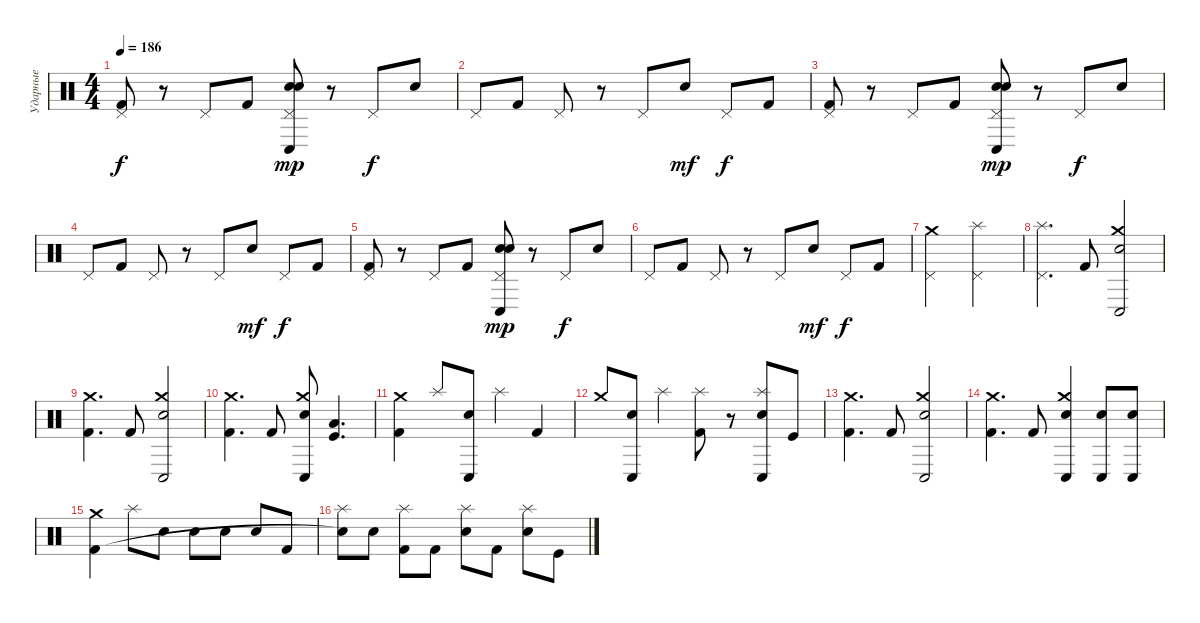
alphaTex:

\track ("Ударные" "Ударные") {instrument percussion}
\staff {score}
\articulation defaults
\ts (4 4)
\tempo 186
\clef neutral
\ks c
("Pedal Hi-Hat (hit)" "Kick (hit) 2").8{dy f} r.8 "Pedal Hi-Hat (hit)".8 "Kick (hit) 2".8 ("Pedal Hi-Hat (hit)" "Conga low (hit)" "Electric Snare (hit)" "Snare (hit) 2").8{dy mp} r.8 "Pedal Hi-Hat (hit)".8{dy f} "Electric Snare (hit)".8 |
"Pedal Hi-Hat (hit)".8 "Kick (hit) 2".8 "Pedal Hi-Hat (hit)".8 r.8 "Pedal Hi-Hat (hit)".8 "Electric Snare (hit)".8{dy mf} "Pedal Hi-Hat (hit)".8{dy f} "Kick (hit) 2".8 |
("Pedal Hi-Hat (hit)" "Kick (hit) 2").8 r.8 "Pedal Hi-Hat (hit)".8 "Kick (hit) 2".8 ("Pedal Hi-Hat (hit)" "Conga low (hit)" "Electric Snare (hit)" "Snare (hit) 2").8{dy mp} r.8 "Pedal Hi-Hat (hit)".8{dy f} "Electric Snare (hit)".8 |
"Pedal Hi-Hat (hit)".8 "Kick (hit) 2".8 "Pedal Hi-Hat (hit)".8 r.8 "Pedal Hi-Hat (hit)".8 "Electric Snare (hit)".8{dy mf} "Pedal Hi-Hat (hit)".8{dy f} "Kick (hit) 2".8 |
("Pedal Hi-Hat (hit)" "Kick (hit) 2").8 r.8 "Pedal Hi-Hat (hit)".8 "Kick (hit) 2".8 ("Pedal Hi-Hat (hit)" "Conga low (hit)" "Electric Snare (hit)" "Snare (hit) 2").8{dy mp} r.8 "Pedal Hi-Hat (hit)".8{dy f} "Electric Snare (hit)".8 |
"Pedal Hi-Hat (hit)".8 "Kick (hit) 2".8 "Pedal Hi-Hat (hit)".8 r.8 "Pedal Hi-Hat (hit)".8 "Electric Snare (hit)".8{dy mf} "Pedal Hi-Hat (hit)".8{dy f} "Kick (hit) 2".8 |
("Crash medium (hit)" "Pedal Hi-Hat (hit)").2 ("Splash (hit)" "Pedal Hi-Hat (hit)").2 |
("Splash (hit)" "Pedal Hi-Hat (hit)").4{d} "Kick (hit) 2".8 ("Crash medium (hit)" "Conga low (hit)" "Electric Snare (hit)").2 |
("Crash medium (hit)" "Kick (hit) 2").4{d} "Kick (hit) 2".8 ("Crash medium (hit)" "Conga low (hit)" "Electric Snare (hit)").2 |
("Crash medium (hit)" "Kick (hit) 2").4{d} "Kick (hit) 2".8 ("Crash medium (hit)" "Conga low (hit)" "Electric Snare (hit)").8 ("Low Floor Tom (hit)" "Kick (hit)").4{d} |
("Crash medium (hit)" "Kick (hit) 2").4 "Splash (hit)".8 ("Conga low (hit)" "Electric Snare (hit)").8 "Splash (hit)".4 "Kick (hit) 2".4 |
"Crash medium (hit)".8 ("Conga low (hit)" "Electric Snare (hit)").8 "Splash (hit)".4 ("Splash (hit)" "Kick (hit) 2").8 r.8 ("Splash (hit)" "Conga low (hit)" "Electric Snare (hit)").8 "Kick (hit)".8 |
("Crash medium (hit)" "Kick (hit) 2").4{d} "Kick (hit) 2".8 ("Crash medium (hit)" "Conga low (hit)" "Electric Snare (hit)").2 |
("Crash medium (hit)" "Kick (hit) 2").4{d} "Kick (hit) 2".8 ("Crash medium (hit)" "Conga low (hit)" "Electric Snare (hit)").4 ("Conga low (hit)" "Electric Snare (hit)").8 ("Conga low (hit)" "Electric Snare (hit)").8 |
("Crash medium (hit)" "Kick (hit) 2").4 "Splash (hit)".8 "Electric Snare (hit)".8 "Electric Snare (hit)".8 "Electric Snare (hit)".8 "Electric Snare (hit)".8 "Kick (hit) 2".8 |
("Splash (hit)" "Snare (hit)"{t}).8 "Electric Snare (hit)".8 ("Splash (hit)" "Kick (hit) 2").8 "Kick (hit) 2".8 ("Splash (hit)" "Electric Snare (hit)").8 "Kick (hit) 2".8 ("Splash (hit)" "Electric Snare (hit)").8 "Kick (hit)".8
